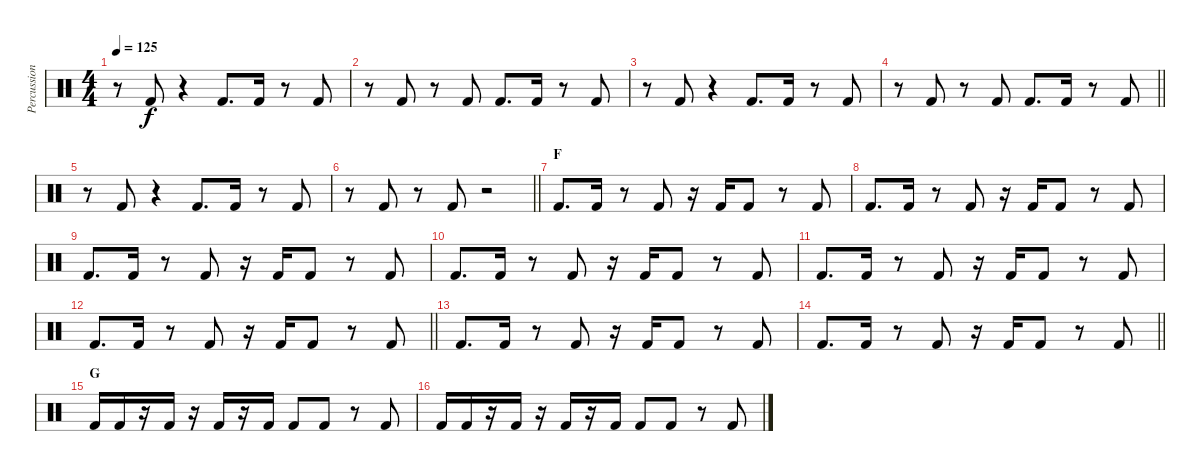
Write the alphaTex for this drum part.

\track ("Percussion (Bass Drum)" "Percussion") {instrument percussion}
\staff {score}
\articulation defaults
\ts (4 4)
\tempo 125
\clef neutral
\ks c
r.8{dy f} "Kick (hit) 2".8 r.4 "Kick (hit) 2".8{d} "Kick (hit) 2".16 r.8 "Kick (hit) 2".8 |
r.8 "Kick (hit) 2".8 r.8 "Kick (hit) 2".8 "Kick (hit) 2".8{d} "Kick (hit) 2".16 r.8 "Kick (hit) 2".8 |
r.8 "Kick (hit) 2".8 r.4 "Kick (hit) 2".8{d} "Kick (hit) 2".16 r.8 "Kick (hit) 2".8 |
\barLineRight lightlight
r.8 "Kick (hit) 2".8 r.8 "Kick (hit) 2".8 "Kick (hit) 2".8{d} "Kick (hit) 2".16 r.8 "Kick (hit) 2".8 |
r.8 "Kick (hit) 2".8 r.4 "Kick (hit) 2".8{d} "Kick (hit) 2".16 r.8 "Kick (hit) 2".8 |
\barLineRight lightlight
r.8 "Kick (hit) 2".8 r.8 "Kick (hit) 2".8 r.2 |
\section ("" "F")
"Kick (hit) 2".8{d} "Kick (hit) 2".16 r.8 "Kick (hit) 2".8 r.16 "Kick (hit) 2".16 "Kick (hit) 2".8 r.8 "Kick (hit) 2".8 |
"Kick (hit) 2".8{d} "Kick (hit) 2".16 r.8 "Kick (hit) 2".8 r.16 "Kick (hit) 2".16 "Kick (hit) 2".8 r.8 "Kick (hit) 2".8 |
"Kick (hit) 2".8{d} "Kick (hit) 2".16 r.8 "Kick (hit) 2".8 r.16 "Kick (hit) 2".16 "Kick (hit) 2".8 r.8 "Kick (hit) 2".8 |
"Kick (hit) 2".8{d} "Kick (hit) 2".16 r.8 "Kick (hit) 2".8 r.16 "Kick (hit) 2".16 "Kick (hit) 2".8 r.8 "Kick (hit) 2".8 |
"Kick (hit) 2".8{d} "Kick (hit) 2".16 r.8 "Kick (hit) 2".8 r.16 "Kick (hit) 2".16 "Kick (hit) 2".8 r.8 "Kick (hit) 2".8 |
\barLineRight lightlight "Kick (hit) 2".8{d} "Kick (hit) 2".16
r.8 "Kick (hit) 2".8 r.16 "Kick (hit) 2".16 "Kick (hit) 2".8 r.8 "Kick (hit) 2".8 |
"Kick (hit) 2".8{d} "Kick (hit) 2".16 r.8 "Kick (hit) 2".8 r.16 "Kick (hit) 2".16 "Kick (hit) 2".8 r.8 "Kick (hit) 2".8 |
\barLineRight lightlight "Kick (hit) 2".8{d} "Kick (hit) 2".16
r.8 "Kick (hit) 2".8 r.16 "Kick (hit) 2".16 "Kick (hit) 2".8 r.8 "Kick (hit) 2".8 |
\section ("" "G")
"Kick (hit) 2".16 "Kick (hit) 2".16 r.16 "Kick (hit) 2".16 r.16 "Kick (hit) 2".16 r.16 "Kick (hit) 2".16 "Kick (hit) 2".8 "Kick (hit) 2".8 r.8 "Kick (hit) 2".8 |
"Kick (hit) 2".16 "Kick (hit) 2".16 r.16 "Kick (hit) 2".16 r.16 "Kick (hit) 2".16 r.16 "Kick (hit) 2".16 "Kick (hit) 2".8 "Kick (hit) 2".8 r.8 "Kick (hit) 2".8
